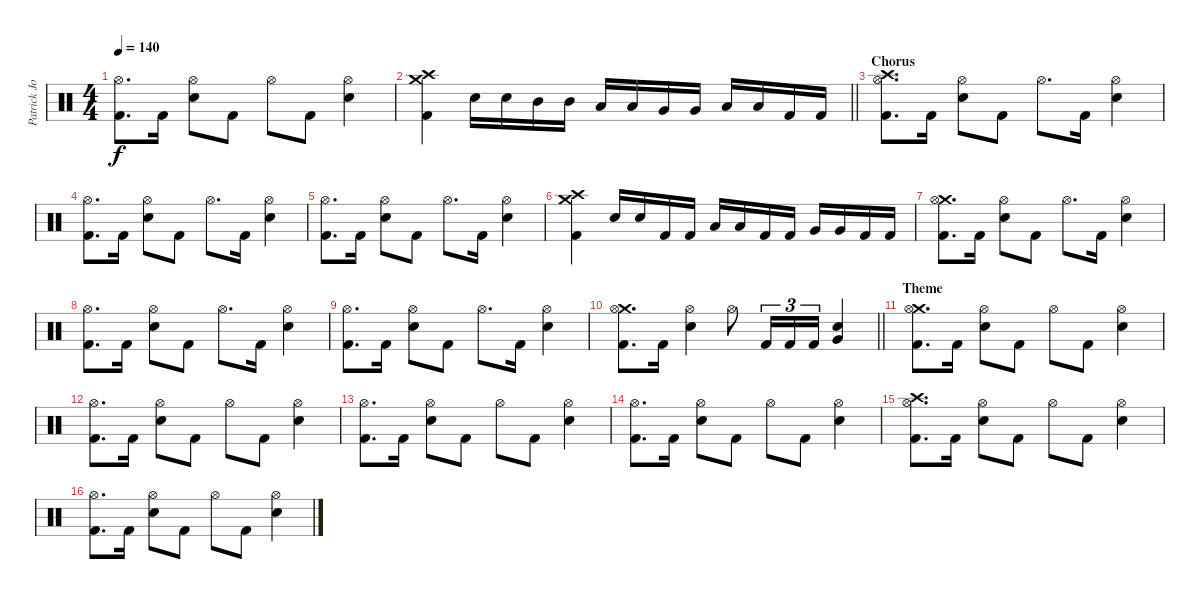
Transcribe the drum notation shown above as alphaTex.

\track ("Patrick Johansson" "Patrick Jo") {instrument percussion}
\staff {score}
\articulation defaults
\ts (4 4)
\tempo 140
\clef neutral
\ks c
("Hi-Hat (open)" "Kick (hit) 2").8{d dy f} "Kick (hit) 2".16 ("Hi-Hat (open)" "Snare (hit) 2").8 "Kick (hit) 2".8 "Hi-Hat (open)".8 "Kick (hit) 2".8 ("Hi-Hat (open)" "Snare (hit) 2").4 |
\barLineRight lightlight
("Crash medium (hit)" "Crash high (hit)" "Kick (hit) 2").4 "Snare (hit) 2".16 "Snare (hit) 2".16 "Mid Tom (hit)".16 "Mid Tom (hit)".16 "Low Tom (hit)".16 "Low Tom (hit)".16 "Very Low Tom (hit)".16 "Very Low Tom (hit)".16 "Low Floor Tom (hit)".16 "Low Floor Tom (hit)".16 "Kick (hit) 2".16 "Kick (hit) 2".16 |
\section ("" "Chorus")
("Crash high (hit)" "Hi-Hat (open)" "Kick (hit) 2").8{d} "Kick (hit) 2".16 ("Hi-Hat (open)" "Snare (hit) 2").8 "Kick (hit) 2".8 "Hi-Hat (open)".8{d} "Kick (hit) 2".16 ("Hi-Hat (open)" "Snare (hit) 2").4 |
("Hi-Hat (open)" "Kick (hit) 2").8{d} "Kick (hit) 2".16 ("Hi-Hat (open)" "Snare (hit) 2").8 "Kick (hit) 2".8 "Hi-Hat (open)".8{d} "Kick (hit) 2".16 ("Hi-Hat (open)" "Snare (hit) 2").4 |
("Hi-Hat (open)" "Kick (hit) 2").8{d} "Kick (hit) 2".16 ("Hi-Hat (open)" "Snare (hit) 2").8 "Kick (hit) 2".8 "Hi-Hat (open)".8{d} "Kick (hit) 2".16 ("Hi-Hat (open)" "Snare (hit) 2").4 |
("Crash medium (hit)" "Crash high (hit)" "Kick (hit) 2").4 "Snare (hit) 2".16 "Snare (hit) 2".16 "Kick (hit) 2".16 "Kick (hit) 2".16 "Low Tom (hit)".16 "Low Tom (hit)".16 "Kick (hit) 2".16 "Kick (hit) 2".16 "Very Low Tom (hit)".16 "Very Low Tom (hit)".16 "Kick (hit) 2".16 "Kick (hit) 2".16 |
("Crash medium (hit)" "Hi-Hat (open)" "Kick (hit) 2").8{d} "Kick (hit) 2".16 ("Hi-Hat (open)" "Snare (hit) 2").8 "Kick (hit) 2".8 "Hi-Hat (open)".8{d} "Kick (hit) 2".16 ("Hi-Hat (open)" "Snare (hit) 2").4 |
("Hi-Hat (open)" "Kick (hit) 2").8{d} "Kick (hit) 2".16 ("Hi-Hat (open)" "Snare (hit) 2").8 "Kick (hit) 2".8 "Hi-Hat (open)".8{d} "Kick (hit) 2".16 ("Hi-Hat (open)" "Snare (hit) 2").4 |
("Hi-Hat (open)" "Kick (hit) 2").8{d} "Kick (hit) 2".16 ("Hi-Hat (open)" "Snare (hit) 2").8 "Kick (hit) 2".8 "Hi-Hat (open)".8{d} "Kick (hit) 2".16 ("Hi-Hat (open)" "Snare (hit) 2").4 |
\barLineRight lightlight
("Crash medium (hit)" "Hi-Hat (open)" "Kick (hit) 2").8{d} "Kick (hit) 2".16 ("Hi-Hat (open)" "Snare (hit) 2").4 "Hi-Hat (open)".8 "Kick (hit) 2".16{tu (3 2)} "Kick (hit) 2".16{tu (3 2)} "Kick (hit) 2".16{tu (3 2)} ("Very Low Tom (hit)" "Snare (hit) 2").4 |
\section ("" "Theme")
("Crash medium (hit)" "Hi-Hat (open)" "Kick (hit) 2").8{d} "Kick (hit) 2".16 ("Hi-Hat (open)" "Snare (hit) 2").8 "Kick (hit) 2".8 "Hi-Hat (open)".8 "Kick (hit) 2".8 ("Hi-Hat (open)" "Snare (hit) 2").4 |
("Hi-Hat (open)" "Kick (hit) 2").8{d} "Kick (hit) 2".16 ("Hi-Hat (open)" "Snare (hit) 2").8 "Kick (hit) 2".8 "Hi-Hat (open)".8 "Kick (hit) 2".8 ("Hi-Hat (open)" "Snare (hit) 2").4 |
("Hi-Hat (open)" "Kick (hit) 2").8{d} "Kick (hit) 2".16 ("Hi-Hat (open)" "Snare (hit) 2").8 "Kick (hit) 2".8 "Hi-Hat (open)".8 "Kick (hit) 2".8 ("Hi-Hat (open)" "Snare (hit) 2").4 |
("Hi-Hat (open)" "Kick (hit) 2").8{d} "Kick (hit) 2".16 ("Hi-Hat (open)" "Snare (hit) 2").8 "Kick (hit) 2".8 "Hi-Hat (open)".8 "Kick (hit) 2".8 ("Hi-Hat (open)" "Snare (hit) 2").4 |
("Crash high (hit)" "Hi-Hat (open)" "Kick (hit) 2").8{d} "Kick (hit) 2".16 ("Hi-Hat (open)" "Snare (hit) 2").8 "Kick (hit) 2".8 "Hi-Hat (open)".8 "Kick (hit) 2".8 ("Hi-Hat (open)" "Snare (hit) 2").4 |
("Hi-Hat (open)" "Kick (hit) 2").8{d} "Kick (hit) 2".16 ("Hi-Hat (open)" "Snare (hit) 2").8 "Kick (hit) 2".8 "Hi-Hat (open)".8 "Kick (hit) 2".8 ("Hi-Hat (open)" "Snare (hit) 2").4
